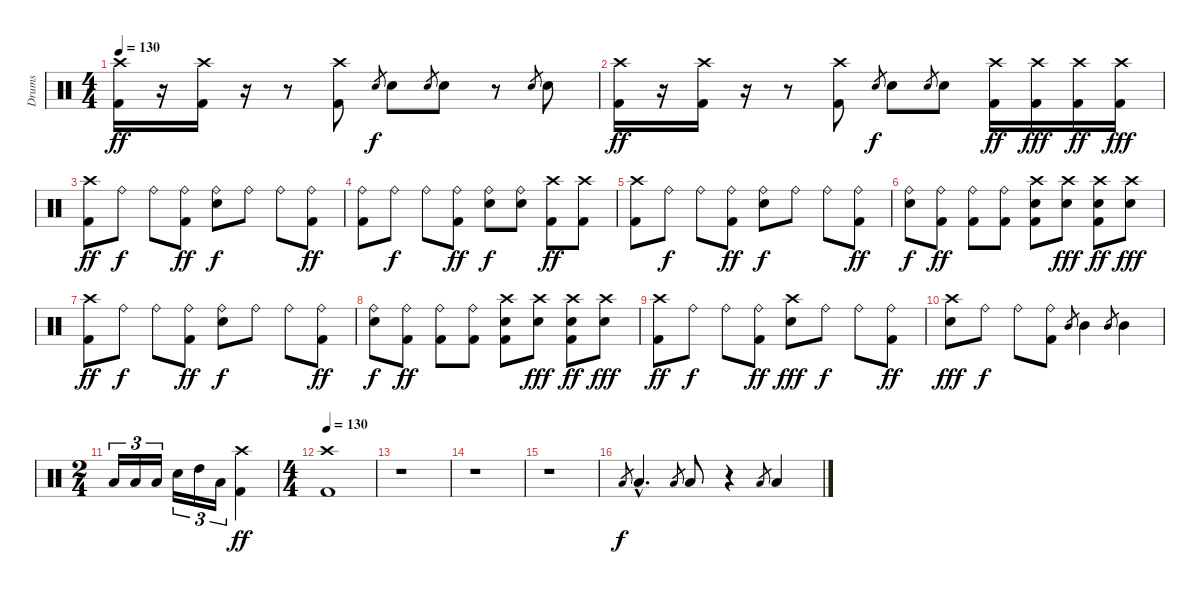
\track ("Drums" "Drums") {instrument percussion}
\staff {score}
\articulation defaults
\ts (4 4)
\tempo 130
\clef neutral
\ks c
("Crash high (hit)" "Kick (hit) 2").16{dy ff} r.16 ("Crash high (hit)" "Kick (hit) 2").16 r.16 r.8 ("Crash high (hit)" "Kick (hit) 2").8 "Snare (hit) 2".8{gr dy f} "Snare (hit) 2".8 "Snare (hit) 2".8{gr} "Snare (hit) 2".8 r.8 "Snare (hit) 2".8{gr} "Snare (hit) 2".8 |
("Crash high (hit)" "Kick (hit) 2").16{dy ff} r.16 ("Crash high (hit)" "Kick (hit) 2").16 r.16 r.8 ("Crash high (hit)" "Kick (hit) 2").8 "Snare (hit) 2".8{gr dy f} "Snare (hit) 2".8 "Snare (hit) 2".8{gr} "Snare (hit) 2".8 ("Crash high (hit)" "Kick (hit) 2").16{dy ff} ("Crash high (hit)" "Kick (hit) 2").16{dy fff} ("Crash high (hit)" "Kick (hit) 2").16{dy ff} ("Crash high (hit)" "Kick (hit) 2").16{dy fff} |
("Crash high (hit)" "Kick (hit) 2").8{dy ff} "Ride (bell)".8{dy f} "Ride (bell)".8 ("Ride (bell)" "Kick (hit) 2").8{dy ff} ("Ride (bell)" "Snare (hit) 2").8{dy f} "Ride (bell)".8 "Ride (bell)".8 ("Ride (bell)" "Kick (hit) 2").8{dy ff} |
("Ride (bell)" "Kick (hit) 2").8 "Ride (bell)".8{dy f} "Ride (bell)".8 ("Ride (bell)" "Kick (hit) 2").8{dy ff} ("Ride (bell)" "Snare (hit) 2").8{dy f} ("Ride (bell)" "Snare (hit) 2").8 ("Crash high (hit)" "Kick (hit) 2").8{dy ff} ("Crash high (hit)" "Kick (hit) 2").8 |
("Crash high (hit)" "Kick (hit) 2").8 "Ride (bell)".8{dy f} "Ride (bell)".8 ("Ride (bell)" "Kick (hit) 2").8{dy ff} ("Ride (bell)" "Snare (hit) 2").8{dy f} "Ride (bell)".8 "Ride (bell)".8 ("Ride (bell)" "Kick (hit) 2").8{dy ff} |
("Ride (bell)" "Snare (hit) 2").8{dy f} ("Ride (bell)" "Kick (hit) 2").8{dy ff} ("Ride (bell)" "Kick (hit) 2").8 ("Ride (bell)" "Kick (hit) 2").8 ("Crash high (hit)" "Snare (hit) 2" "Kick (hit) 2").8 ("Crash high (hit)" "Snare (hit) 2").8{dy fff} ("Crash high (hit)" "Snare (hit) 2" "Kick (hit) 2").8{dy ff} ("Crash high (hit)" "Snare (hit) 2").8{dy fff} |
("Crash high (hit)" "Kick (hit) 2").8{dy ff} "Ride (bell)".8{dy f} "Ride (bell)".8 ("Ride (bell)" "Kick (hit) 2").8{dy ff} ("Ride (bell)" "Snare (hit) 2").8{dy f} "Ride (bell)".8 "Ride (bell)".8 ("Ride (bell)" "Kick (hit) 2").8{dy ff} |
("Ride (bell)" "Snare (hit) 2").8{dy f} ("Ride (bell)" "Kick (hit) 2").8{dy ff} ("Ride (bell)" "Kick (hit) 2").8 ("Ride (bell)" "Kick (hit) 2").8 ("Crash high (hit)" "Snare (hit) 2" "Kick (hit) 2").8 ("Crash high (hit)" "Snare (hit) 2").8{dy fff} ("Crash high (hit)" "Snare (hit) 2" "Kick (hit) 2").8{dy ff} ("Crash high (hit)" "Snare (hit) 2").8{dy fff} |
("Crash high (hit)" "Kick (hit) 2").8{dy ff} "Ride (bell)".8{dy f} "Ride (bell)".8 ("Ride (bell)" "Kick (hit) 2").8{dy ff} ("Crash high (hit)" "Snare (hit) 2").8{dy fff} "Ride (bell)".8{dy f} "Ride (bell)".8 ("Ride (bell)" "Kick (hit) 2").8{dy ff} |
("Crash high (hit)" "Snare (hit) 2").8{dy fff} "Ride (bell)".8{dy f} "Ride (bell)".8 ("Ride (bell)" "Kick (hit) 2").8 "Mid Tom (hit)".8{gr} "Mid Tom (hit)".4 "Mid Tom (hit)".8{gr} "Mid Tom (hit)".4 |
\ts (2 4)
"Low Tom (hit)".16{tu (3 2)} "Low Tom (hit)".16{tu (3 2)} "Low Tom (hit)".16{tu (3 2)} "Snare (hit) 2".16{tu (3 2)} "High Tom (hit)".16{tu (3 2)} "Low Floor Tom (hit)".16{tu (3 2)} ("Crash high (hit)" "Kick (hit) 2").4{dy ff} |
\ts (4 4)
\tempo 130
("Crash high (hit)" "Kick (hit) 2").1 |
r.1 |
r.1 |
r.1 |
"Low Tom (hit)".8{gr dy f} "Low Tom (hit)"{hac}.4{d} "Low Tom (hit)".8{gr} "Low Tom (hit)".8 r.4 "Low Tom (hit)".8{gr} "Low Tom (hit)".4
